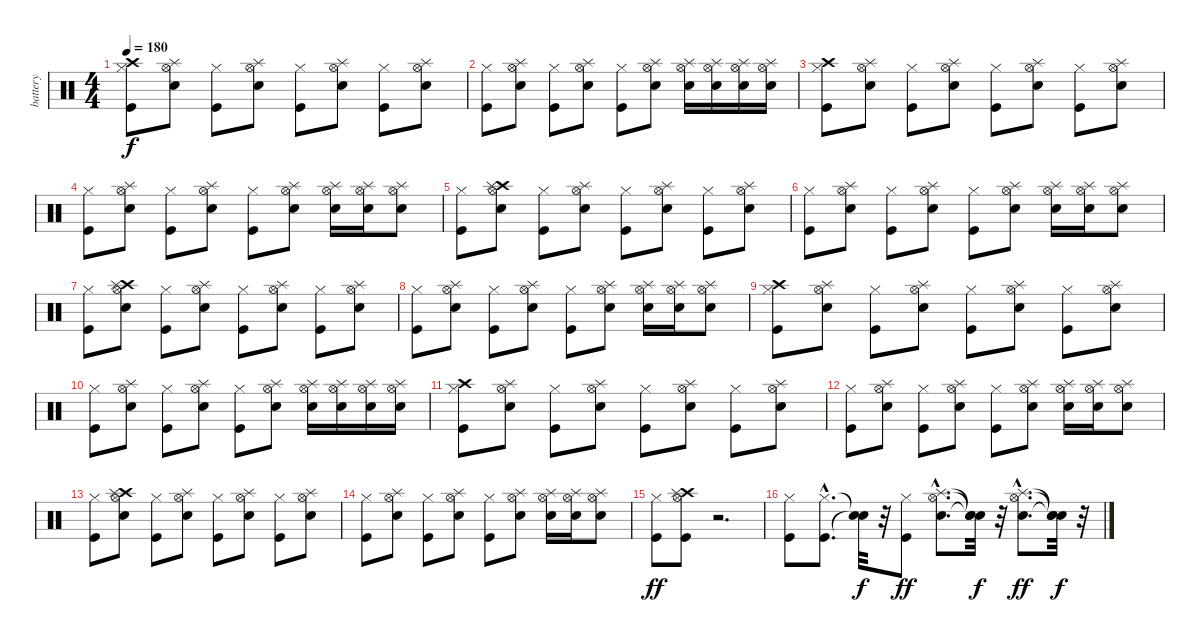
\track ("battery" "battery") {instrument percussion}
\staff {score}
\articulation defaults
\ts (4 4)
\tempo 180
\clef neutral
\ks c
("Kick (hit)" "Hi-Hat (closed)" "Crash high (hit)").8{dy f} ("Electric Snare (hit)" "Hi-Hat (open)" "Splash (hit)").8 ("Kick (hit)" "Hi-Hat (closed)").8 ("Electric Snare (hit)" "Hi-Hat (open)" "Splash (hit)").8 ("Kick (hit)" "Hi-Hat (closed)").8 ("Electric Snare (hit)" "Hi-Hat (open)" "Splash (hit)").8 ("Kick (hit)" "Hi-Hat (closed)").8 ("Electric Snare (hit)" "Hi-Hat (open)" "Splash (hit)").8 |
("Kick (hit)" "Hi-Hat (closed)").8 ("Electric Snare (hit)" "Hi-Hat (open)" "Splash (hit)").8 ("Kick (hit)" "Hi-Hat (closed)").8 ("Electric Snare (hit)" "Hi-Hat (open)" "Splash (hit)").8 ("Kick (hit)" "Hi-Hat (closed)").8 ("Electric Snare (hit)" "Hi-Hat (open)" "Splash (hit)").8 ("Electric Snare (hit)" "Hi-Hat (open)" "Splash (hit)").16 ("Electric Snare (hit)" "Hi-Hat (open)" "Splash (hit)").16 ("Electric Snare (hit)" "Hi-Hat (open)" "Splash (hit)").16 ("Electric Snare (hit)" "Hi-Hat (open)" "Splash (hit)").16 |
("Kick (hit)" "Hi-Hat (closed)" "Crash high (hit)").8 ("Electric Snare (hit)" "Hi-Hat (open)" "Splash (hit)").8 ("Kick (hit)" "Hi-Hat (closed)").8 ("Electric Snare (hit)" "Hi-Hat (open)" "Splash (hit)").8 ("Kick (hit)" "Hi-Hat (closed)").8 ("Electric Snare (hit)" "Hi-Hat (open)" "Splash (hit)").8 ("Kick (hit)" "Hi-Hat (closed)").8 ("Electric Snare (hit)" "Hi-Hat (open)" "Splash (hit)").8 |
("Kick (hit)" "Hi-Hat (closed)").8 ("Electric Snare (hit)" "Hi-Hat (open)" "Splash (hit)").8 ("Kick (hit)" "Hi-Hat (closed)").8 ("Electric Snare (hit)" "Hi-Hat (open)" "Splash (hit)").8 ("Kick (hit)" "Hi-Hat (closed)").8 ("Electric Snare (hit)" "Hi-Hat (open)" "Splash (hit)").8 ("Electric Snare (hit)" "Hi-Hat (open)" "Splash (hit)").16 ("Electric Snare (hit)" "Hi-Hat (open)" "Splash (hit)").16 ("Electric Snare (hit)" "Hi-Hat (open)" "Splash (hit)").8 |
("Kick (hit)" "Hi-Hat (closed)").8 ("Electric Snare (hit)" "Hi-Hat (open)" "Crash high (hit)" "Splash (hit)").8 ("Kick (hit)" "Hi-Hat (closed)").8 ("Electric Snare (hit)" "Hi-Hat (open)" "Splash (hit)").8 ("Kick (hit)" "Hi-Hat (closed)").8 ("Electric Snare (hit)" "Hi-Hat (open)" "Splash (hit)").8 ("Kick (hit)" "Hi-Hat (closed)").8 ("Electric Snare (hit)" "Hi-Hat (open)" "Splash (hit)").8 |
("Kick (hit)" "Hi-Hat (closed)").8 ("Electric Snare (hit)" "Hi-Hat (open)" "Splash (hit)").8 ("Kick (hit)" "Hi-Hat (closed)").8 ("Electric Snare (hit)" "Hi-Hat (open)" "Splash (hit)").8 ("Kick (hit)" "Hi-Hat (closed)").8 ("Electric Snare (hit)" "Hi-Hat (open)" "Splash (hit)").8 ("Electric Snare (hit)" "Hi-Hat (open)" "Splash (hit)").16 ("Electric Snare (hit)" "Hi-Hat (open)" "Splash (hit)").16 ("Electric Snare (hit)" "Hi-Hat (open)" "Splash (hit)").8 |
("Kick (hit)" "Hi-Hat (closed)").8 ("Electric Snare (hit)" "Hi-Hat (open)" "Crash high (hit)" "Splash (hit)").8 ("Kick (hit)" "Hi-Hat (closed)").8 ("Electric Snare (hit)" "Hi-Hat (open)" "Splash (hit)").8 ("Kick (hit)" "Hi-Hat (closed)").8 ("Electric Snare (hit)" "Hi-Hat (open)" "Splash (hit)").8 ("Kick (hit)" "Hi-Hat (closed)").8 ("Electric Snare (hit)" "Hi-Hat (open)" "Splash (hit)").8 |
("Kick (hit)" "Hi-Hat (closed)").8 ("Electric Snare (hit)" "Hi-Hat (open)" "Splash (hit)").8 ("Kick (hit)" "Hi-Hat (closed)").8 ("Electric Snare (hit)" "Hi-Hat (open)" "Splash (hit)").8 ("Kick (hit)" "Hi-Hat (closed)").8 ("Electric Snare (hit)" "Hi-Hat (open)" "Splash (hit)").8 ("Electric Snare (hit)" "Hi-Hat (open)" "Splash (hit)").16 ("Electric Snare (hit)" "Hi-Hat (open)" "Splash (hit)").16 ("Electric Snare (hit)" "Hi-Hat (open)" "Splash (hit)").8 |
("Kick (hit)" "Hi-Hat (closed)" "Crash high (hit)").8 ("Electric Snare (hit)" "Hi-Hat (open)" "Splash (hit)").8 ("Kick (hit)" "Hi-Hat (closed)").8 ("Electric Snare (hit)" "Hi-Hat (open)" "Splash (hit)").8 ("Kick (hit)" "Hi-Hat (closed)").8 ("Electric Snare (hit)" "Hi-Hat (open)" "Splash (hit)").8 ("Kick (hit)" "Hi-Hat (closed)").8 ("Electric Snare (hit)" "Hi-Hat (open)" "Splash (hit)").8 |
("Kick (hit)" "Hi-Hat (closed)").8 ("Electric Snare (hit)" "Hi-Hat (open)" "Splash (hit)").8 ("Kick (hit)" "Hi-Hat (closed)").8 ("Electric Snare (hit)" "Hi-Hat (open)" "Splash (hit)").8 ("Kick (hit)" "Hi-Hat (closed)").8 ("Electric Snare (hit)" "Hi-Hat (open)" "Splash (hit)").8 ("Electric Snare (hit)" "Hi-Hat (open)" "Splash (hit)").16 ("Electric Snare (hit)" "Hi-Hat (open)" "Splash (hit)").16 ("Electric Snare (hit)" "Hi-Hat (open)" "Splash (hit)").16 ("Electric Snare (hit)" "Hi-Hat (open)" "Splash (hit)").16 |
("Kick (hit)" "Hi-Hat (closed)" "Crash high (hit)").8 ("Electric Snare (hit)" "Hi-Hat (open)" "Splash (hit)").8 ("Kick (hit)" "Hi-Hat (closed)").8 ("Electric Snare (hit)" "Hi-Hat (open)" "Splash (hit)").8 ("Kick (hit)" "Hi-Hat (closed)").8 ("Electric Snare (hit)" "Hi-Hat (open)" "Splash (hit)").8 ("Kick (hit)" "Hi-Hat (closed)").8 ("Electric Snare (hit)" "Hi-Hat (open)" "Splash (hit)").8 |
("Kick (hit)" "Hi-Hat (closed)").8 ("Electric Snare (hit)" "Hi-Hat (open)" "Splash (hit)").8 ("Kick (hit)" "Hi-Hat (closed)").8 ("Electric Snare (hit)" "Hi-Hat (open)" "Splash (hit)").8 ("Kick (hit)" "Hi-Hat (closed)").8 ("Electric Snare (hit)" "Hi-Hat (open)" "Splash (hit)").8 ("Electric Snare (hit)" "Hi-Hat (open)" "Splash (hit)").16 ("Electric Snare (hit)" "Hi-Hat (open)" "Splash (hit)").16 ("Electric Snare (hit)" "Hi-Hat (open)" "Splash (hit)").8 |
("Kick (hit)" "Hi-Hat (closed)").8 ("Electric Snare (hit)" "Hi-Hat (open)" "Crash high (hit)" "Splash (hit)").8 ("Kick (hit)" "Hi-Hat (closed)").8 ("Electric Snare (hit)" "Hi-Hat (open)" "Splash (hit)").8 ("Kick (hit)" "Hi-Hat (closed)").8 ("Electric Snare (hit)" "Hi-Hat (open)" "Splash (hit)").8 ("Kick (hit)" "Hi-Hat (closed)").8 ("Electric Snare (hit)" "Hi-Hat (open)" "Splash (hit)").8 |
("Kick (hit)" "Hi-Hat (closed)").8 ("Electric Snare (hit)" "Hi-Hat (open)" "Splash (hit)").8 ("Kick (hit)" "Hi-Hat (closed)").8 ("Electric Snare (hit)" "Hi-Hat (open)" "Splash (hit)").8 ("Kick (hit)" "Hi-Hat (closed)").8 ("Electric Snare (hit)" "Hi-Hat (open)" "Splash (hit)").8 ("Electric Snare (hit)" "Hi-Hat (open)" "Splash (hit)").16 ("Electric Snare (hit)" "Hi-Hat (open)" "Splash (hit)").16 ("Electric Snare (hit)" "Hi-Hat (open)" "Splash (hit)").8 |
("Kick (hit)" "Hi-Hat (closed)").8{dy ff} ("Kick (hit)" "Hi-Hat (open)" "Crash high (hit)" "Splash (hit)").8 r.2{d} |
("Kick (hit)" "Hi-Hat (closed)").8 ("Kick (hit)"{hac} "Hi-Hat (closed)"{hac}).8{d} ("Snare (hit)"{t} "Snare (hit)"{t}).32{dy f} r.32 ("Kick (hit)" "Hi-Hat (closed)").8{dy ff} ("Electric Snare (hit)"{hac} "Hi-Hat (open)"{hac} "Splash (hit)"{hac}).8{d} ("Snare (hit)"{t} "Snare (hit)"{t} "Snare (hit)"{t}).32{dy f} r.32 ("Electric Snare (hit)"{hac} "Hi-Hat (open)"{hac} "Splash (hit)"{hac}).8{d dy ff} ("Snare (hit)"{t} "Snare (hit)"{t} "Snare (hit)"{t}).32{dy f} r.32
